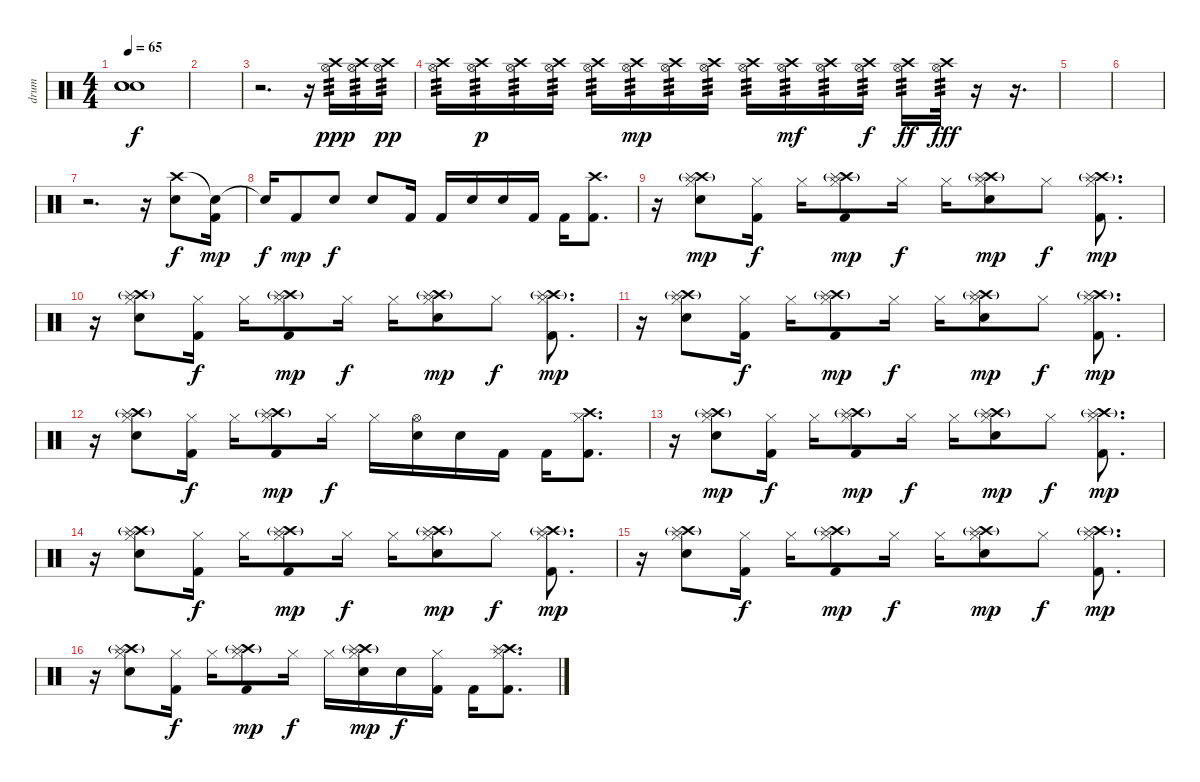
\track ("drum" "drum") {instrument percussion}
\staff {score}
\articulation defaults
\ts (4 4)
\tempo 65
\clef neutral
\ks c
("Snare (hit)"{t} "Snare (hit)"{t} "Snare (hit)"{t}).1{dy f} |
|
r.2{d} r.16 ("Hi-Hat (open)" "Crash high (hit)").16{tp 3 dy ppp} ("Hi-Hat (open)" "Crash high (hit)").16{tp 3} ("Hi-Hat (open)" "Crash high (hit)").16{tp 3 dy pp} |
("Hi-Hat (open)" "Crash high (hit)").16{tp 3} ("Hi-Hat (open)" "Crash high (hit)").16{tp 3 dy p} ("Hi-Hat (open)" "Crash high (hit)").16{tp 3} ("Hi-Hat (open)" "Crash high (hit)").16{tp 3} ("Hi-Hat (open)" "Crash high (hit)").16{tp 3} ("Hi-Hat (open)" "Crash high (hit)").16{tp 3 dy mp} ("Hi-Hat (open)" "Crash high (hit)").16{tp 3} ("Hi-Hat (open)" "Crash high (hit)").16{tp 3} ("Hi-Hat (open)" "Crash high (hit)").16{tp 3} ("Hi-Hat (open)" "Crash high (hit)").16{tp 3 dy mf} ("Hi-Hat (open)" "Crash high (hit)").16{tp 3} ("Hi-Hat (open)" "Crash high (hit)").16{tp 3 dy f} ("Hi-Hat (open)" "Crash high (hit)").16{tp 3 dy ff} ("Hi-Hat (open)" "Crash high (hit)").32{tp 3 dy fff} r.16 r.16{d} |
|
|
r.2{d} r.16 ("Crash high (hit)" "Electric Snare (hit)").8{dy f} ("Snare (hit)"{t} "Kick (hit) 2").16{dy mp} |
"Snare (hit)"{t}.16{dy f} "Kick (hit) 2".8{dy mp} "Electric Snare (hit)".8{dy f} "Electric Snare (hit)".8 "Kick (hit) 2".16 "Kick (hit) 2".16 "Electric Snare (hit)".16 "Electric Snare (hit)".16 "Kick (hit) 2".16 "Kick (hit) 2".16 ("Crash high (hit)" "Kick (hit) 2").8{d} |
r.16 ("Crash high (hit)"{g} "Hi-Hat (closed)" "Splash (hit)" "Electric Snare (hit)").8{dy mp} ("Hi-Hat (closed)" "Kick (hit) 2").16{dy f} "Hi-Hat (closed)".16 ("Crash high (hit)"{g} "Hi-Hat (closed)" "Splash (hit)" "Kick (hit) 2").8{dy mp} "Hi-Hat (closed)".16{dy f} "Hi-Hat (closed)".16 ("Crash high (hit)"{g} "Hi-Hat (closed)" "Splash (hit)" "Electric Snare (hit)").8{dy mp} "Hi-Hat (closed)".8{dy f} ("Crash high (hit)"{g} "Hi-Hat (closed)" "Splash (hit)" "Kick (hit) 2").8{d dy mp} |
r.16 ("Crash high (hit)"{g} "Hi-Hat (closed)" "Splash (hit)" "Electric Snare (hit)").8 ("Hi-Hat (closed)" "Kick (hit) 2").16{dy f} "Hi-Hat (closed)".16 ("Crash high (hit)"{g} "Hi-Hat (closed)" "Splash (hit)" "Kick (hit) 2").8{dy mp} "Hi-Hat (closed)".16{dy f} "Hi-Hat (closed)".16 ("Crash high (hit)"{g} "Hi-Hat (closed)" "Splash (hit)" "Electric Snare (hit)").8{dy mp} "Hi-Hat (closed)".8{dy f} ("Crash high (hit)"{g} "Hi-Hat (closed)" "Splash (hit)" "Kick (hit) 2").8{d dy mp} |
r.16 ("Crash high (hit)"{g} "Hi-Hat (closed)" "Splash (hit)" "Electric Snare (hit)").8 ("Hi-Hat (closed)" "Kick (hit) 2").16{dy f} "Hi-Hat (closed)".16 ("Crash high (hit)"{g} "Hi-Hat (closed)" "Splash (hit)" "Kick (hit) 2").8{dy mp} "Hi-Hat (closed)".16{dy f} "Hi-Hat (closed)".16 ("Crash high (hit)"{g} "Hi-Hat (closed)" "Splash (hit)" "Electric Snare (hit)").8{dy mp} "Hi-Hat (closed)".8{dy f} ("Crash high (hit)"{g} "Hi-Hat (closed)" "Splash (hit)" "Kick (hit) 2").8{d dy mp} |
r.16 ("Crash high (hit)"{g} "Hi-Hat (closed)" "Splash (hit)" "Electric Snare (hit)").8 ("Hi-Hat (closed)" "Kick (hit) 2").16{dy f} "Hi-Hat (closed)".16 ("Crash high (hit)"{g} "Hi-Hat (closed)" "Splash (hit)" "Kick (hit) 2").8{dy mp} "Hi-Hat (closed)".16{dy f} "Hi-Hat (closed)".16 ("Hi-Hat (open)" "Electric Snare (hit)").16 "Electric Snare (hit)".16 "Kick (hit) 2".16 "Kick (hit) 2".16 ("Crash high (hit)" "Hi-Hat (closed)" "Kick (hit) 2").8{d} |
r.16 ("Crash high (hit)"{g} "Hi-Hat (closed)" "Splash (hit)" "Electric Snare (hit)").8{dy mp} ("Hi-Hat (closed)" "Kick (hit) 2").16{dy f} "Hi-Hat (closed)".16 ("Crash high (hit)"{g} "Hi-Hat (closed)" "Splash (hit)" "Kick (hit) 2").8{dy mp} "Hi-Hat (closed)".16{dy f} "Hi-Hat (closed)".16 ("Crash high (hit)"{g} "Hi-Hat (closed)" "Splash (hit)" "Electric Snare (hit)").8{dy mp} "Hi-Hat (closed)".8{dy f} ("Crash high (hit)"{g} "Hi-Hat (closed)" "Splash (hit)" "Kick (hit) 2").8{d dy mp} |
r.16 ("Crash high (hit)"{g} "Hi-Hat (closed)" "Splash (hit)" "Electric Snare (hit)").8 ("Hi-Hat (closed)" "Kick (hit) 2").16{dy f} "Hi-Hat (closed)".16 ("Crash high (hit)"{g} "Hi-Hat (closed)" "Splash (hit)" "Kick (hit) 2").8{dy mp} "Hi-Hat (closed)".16{dy f} "Hi-Hat (closed)".16 ("Crash high (hit)"{g} "Hi-Hat (closed)" "Splash (hit)" "Electric Snare (hit)").8{dy mp} "Hi-Hat (closed)".8{dy f} ("Crash high (hit)"{g} "Hi-Hat (closed)" "Splash (hit)" "Kick (hit) 2").8{d dy mp} |
r.16 ("Crash high (hit)"{g} "Hi-Hat (closed)" "Splash (hit)" "Electric Snare (hit)").8 ("Hi-Hat (closed)" "Kick (hit) 2").16{dy f} "Hi-Hat (closed)".16 ("Crash high (hit)"{g} "Hi-Hat (closed)" "Splash (hit)" "Kick (hit) 2").8{dy mp} "Hi-Hat (closed)".16{dy f} "Hi-Hat (closed)".16 ("Crash high (hit)"{g} "Hi-Hat (closed)" "Splash (hit)" "Electric Snare (hit)").8{dy mp} "Hi-Hat (closed)".8{dy f} ("Crash high (hit)"{g} "Hi-Hat (closed)" "Splash (hit)" "Kick (hit) 2").8{d dy mp} |
r.16 ("Crash high (hit)"{g} "Hi-Hat (closed)" "Splash (hit)" "Electric Snare (hit)").8 ("Hi-Hat (closed)" "Kick (hit) 2").16{dy f} "Hi-Hat (closed)".16 ("Crash high (hit)"{g} "Hi-Hat (closed)" "Splash (hit)" "Kick (hit) 2").8{dy mp} "Hi-Hat (closed)".16{dy f} "Hi-Hat (closed)".16 ("Crash high (hit)"{g} "Hi-Hat (closed)" "Splash (hit)" "Electric Snare (hit)").16{dy mp} "Electric Snare (hit)".16{dy f} ("Hi-Hat (closed)" "Kick (hit) 2").16 "Kick (hit) 2".16 ("Crash high (hit)" "Hi-Hat (closed)" "Splash (hit)" "Kick (hit) 2").8{d}
